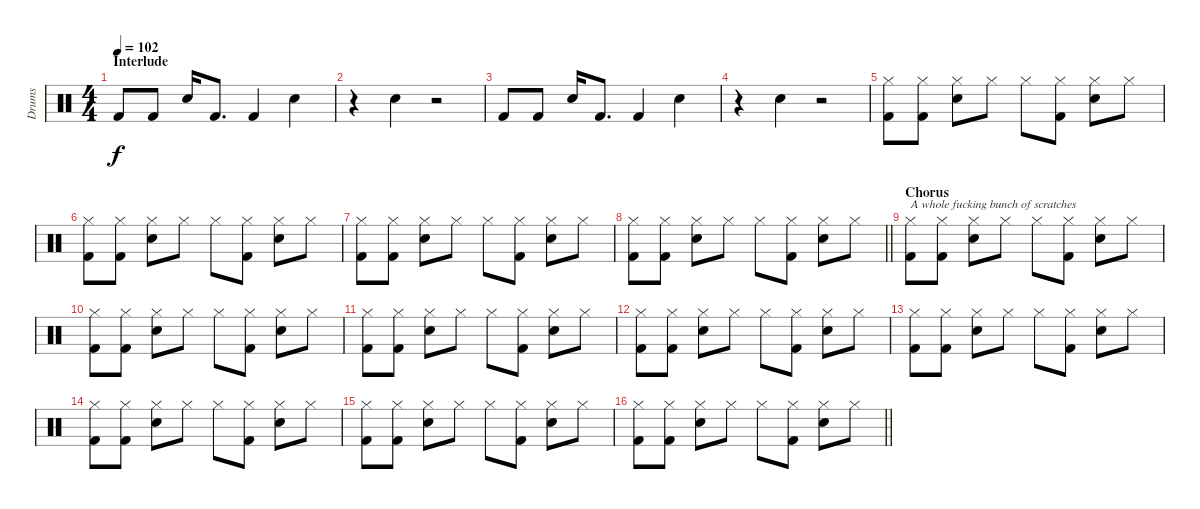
\track ("Drums" "Drums") {instrument percussion}
\staff {score}
\articulation defaults
\ts (4 4)
\section ("" "Interlude")
\tempo 102
\clef neutral
\ks c "Kick (hit) 2".8{dy f} "Kick (hit) 2".8 "Electric Snare (hit)".16 "Kick (hit) 2".8{d} "Kick (hit) 2".4 "Electric Snare (hit)".4
|
r.4 "Electric Snare (hit)".4 r.2 |
"Kick (hit) 2".8 "Kick (hit) 2".8 "Electric Snare (hit)".16 "Kick (hit) 2".8{d} "Kick (hit) 2".4 "Electric Snare (hit)".4 |
r.4 "Electric Snare (hit)".4 r.2 |
("Hi-Hat (closed)" "Kick (hit) 2").8 ("Hi-Hat (closed)" "Kick (hit) 2").8 ("Hi-Hat (closed)" "Snare (hit) 2").8 "Hi-Hat (closed)".8 "Hi-Hat (closed)".8 ("Hi-Hat (closed)" "Kick (hit) 2").8 ("Hi-Hat (closed)" "Snare (hit) 2").8 "Hi-Hat (closed)".8 |
("Hi-Hat (closed)" "Kick (hit) 2").8 ("Hi-Hat (closed)" "Kick (hit) 2").8 ("Hi-Hat (closed)" "Snare (hit) 2").8 "Hi-Hat (closed)".8 "Hi-Hat (closed)".8 ("Hi-Hat (closed)" "Kick (hit) 2").8 ("Hi-Hat (closed)" "Snare (hit) 2").8 "Hi-Hat (closed)".8 |
("Hi-Hat (closed)" "Kick (hit) 2").8 ("Hi-Hat (closed)" "Kick (hit) 2").8 ("Hi-Hat (closed)" "Snare (hit) 2").8 "Hi-Hat (closed)".8 "Hi-Hat (closed)".8 ("Hi-Hat (closed)" "Kick (hit) 2").8 ("Hi-Hat (closed)" "Snare (hit) 2").8 "Hi-Hat (closed)".8 |
\barLineRight lightlight
("Hi-Hat (closed)" "Kick (hit) 2").8 ("Hi-Hat (closed)" "Kick (hit) 2").8 ("Hi-Hat (closed)" "Snare (hit) 2").8 "Hi-Hat (closed)".8 "Hi-Hat (closed)".8 ("Hi-Hat (closed)" "Kick (hit) 2").8 ("Hi-Hat (closed)" "Snare (hit) 2").8 "Hi-Hat (closed)".8 |
\section ("" "Chorus")
("Hi-Hat (closed)" "Kick (hit) 2").8{txt "A whole fucking bunch of scratches"} ("Hi-Hat (closed)" "Kick (hit) 2").8 ("Hi-Hat (closed)" "Snare (hit) 2").8 "Hi-Hat (closed)".8 "Hi-Hat (closed)".8 ("Hi-Hat (closed)" "Kick (hit) 2").8 ("Hi-Hat (closed)" "Snare (hit) 2").8 "Hi-Hat (closed)".8 |
("Hi-Hat (closed)" "Kick (hit) 2").8 ("Hi-Hat (closed)" "Kick (hit) 2").8 ("Hi-Hat (closed)" "Snare (hit) 2").8 "Hi-Hat (closed)".8 "Hi-Hat (closed)".8 ("Hi-Hat (closed)" "Kick (hit) 2").8 ("Hi-Hat (closed)" "Snare (hit) 2").8 "Hi-Hat (closed)".8 |
("Hi-Hat (closed)" "Kick (hit) 2").8 ("Hi-Hat (closed)" "Kick (hit) 2").8 ("Hi-Hat (closed)" "Snare (hit) 2").8 "Hi-Hat (closed)".8 "Hi-Hat (closed)".8 ("Hi-Hat (closed)" "Kick (hit) 2").8 ("Hi-Hat (closed)" "Snare (hit) 2").8 "Hi-Hat (closed)".8 |
("Hi-Hat (closed)" "Kick (hit) 2").8 ("Hi-Hat (closed)" "Kick (hit) 2").8 ("Hi-Hat (closed)" "Snare (hit) 2").8 "Hi-Hat (closed)".8 "Hi-Hat (closed)".8 ("Hi-Hat (closed)" "Kick (hit) 2").8 ("Hi-Hat (closed)" "Snare (hit) 2").8 "Hi-Hat (closed)".8 |
("Hi-Hat (closed)" "Kick (hit) 2").8 ("Hi-Hat (closed)" "Kick (hit) 2").8 ("Hi-Hat (closed)" "Snare (hit) 2").8 "Hi-Hat (closed)".8 "Hi-Hat (closed)".8 ("Hi-Hat (closed)" "Kick (hit) 2").8 ("Hi-Hat (closed)" "Snare (hit) 2").8 "Hi-Hat (closed)".8 |
("Hi-Hat (closed)" "Kick (hit) 2").8 ("Hi-Hat (closed)" "Kick (hit) 2").8 ("Hi-Hat (closed)" "Snare (hit) 2").8 "Hi-Hat (closed)".8 "Hi-Hat (closed)".8 ("Hi-Hat (closed)" "Kick (hit) 2").8 ("Hi-Hat (closed)" "Snare (hit) 2").8 "Hi-Hat (closed)".8 |
("Hi-Hat (closed)" "Kick (hit) 2").8 ("Hi-Hat (closed)" "Kick (hit) 2").8 ("Hi-Hat (closed)" "Snare (hit) 2").8 "Hi-Hat (closed)".8 "Hi-Hat (closed)".8 ("Hi-Hat (closed)" "Kick (hit) 2").8 ("Hi-Hat (closed)" "Snare (hit) 2").8 "Hi-Hat (closed)".8 |
\barLineRight lightlight
("Hi-Hat (closed)" "Kick (hit) 2").8 ("Hi-Hat (closed)" "Kick (hit) 2").8 ("Hi-Hat (closed)" "Snare (hit) 2").8 "Hi-Hat (closed)".8 "Hi-Hat (closed)".8 ("Hi-Hat (closed)" "Kick (hit) 2").8 ("Hi-Hat (closed)" "Snare (hit) 2").8 "Hi-Hat (closed)".8
